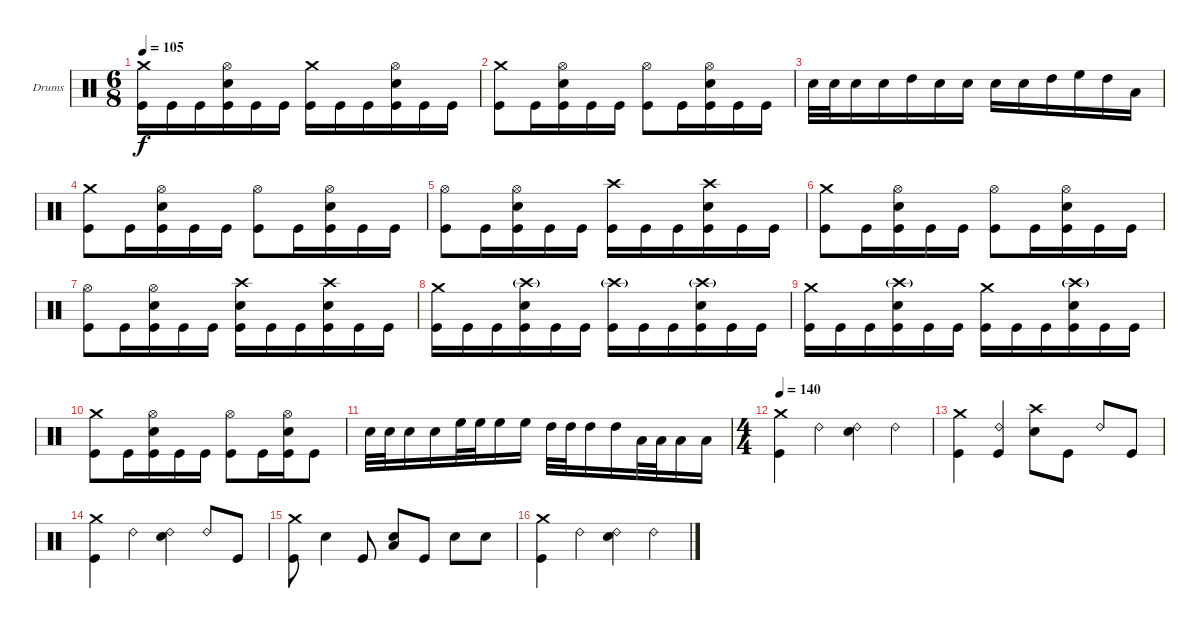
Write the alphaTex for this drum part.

\defaultSystemsLayout 4
\bracketExtendMode groupsimilarinstruments
\firstSystemTrackNameOrientation horizontal
\otherSystemsTrackNameOrientation horizontal
\track ("Stefan Schwarzmann" "Drums") {instrument percussion}
\staff {score}
\articulation defaults
\ts (6 8)
\tempo 105
\clef neutral
\ks c
("Crash medium (hit)" "Kick (hit)").16{dy f} "Kick (hit)".16 "Kick (hit)".16 ("Hi-Hat (open)" "Snare (hit) 2" "Kick (hit)").16 "Kick (hit)".16 "Kick (hit)".16 ("Crash medium (hit)" "Kick (hit)").16 "Kick (hit)".16 "Kick (hit)".16 ("Hi-Hat (open)" "Snare (hit) 2" "Kick (hit)").16 "Kick (hit)".16 "Kick (hit)".16 |
("Crash medium (hit)" "Kick (hit)").8 "Kick (hit)".16 ("Hi-Hat (open)" "Snare (hit) 2" "Kick (hit)").16 "Kick (hit)".16 "Kick (hit)".16 ("Hi-Hat (open)" "Kick (hit)").8 "Kick (hit)".16 ("Hi-Hat (open)" "Snare (hit) 2" "Kick (hit)").16 "Kick (hit)".16 "Kick (hit)".16 |
"Snare (hit) 2".32 "Snare (hit) 2".32 "Snare (hit) 2".16 "Snare (hit) 2".16 "High Tom (hit)".16 "Snare (hit) 2".16 "Snare (hit) 2".16 "Snare (hit) 2".16 "Snare (hit) 2".16 "High Tom (hit)".16 "High Floor Tom (hit)".16 "High Tom (hit)".16 "Low Tom (hit)".16 |
("Crash medium (hit)" "Kick (hit)").8 "Kick (hit)".16 ("Hi-Hat (open)" "Snare (hit) 2" "Kick (hit)").16 "Kick (hit)".16 "Kick (hit)".16 ("Hi-Hat (open)" "Kick (hit)").8 "Kick (hit)".16 ("Hi-Hat (open)" "Snare (hit) 2" "Kick (hit)").16 "Kick (hit)".16 "Kick (hit)".16 |
("Hi-Hat (open)" "Kick (hit)").8 "Kick (hit)".16 ("Hi-Hat (open)" "Snare (hit) 2" "Kick (hit)").16 "Kick (hit)".16 "Kick (hit)".16 ("Crash high (hit)" "Kick (hit)").16 "Kick (hit)".16 "Kick (hit)".16 ("Crash high (hit)" "Snare (hit) 2" "Kick (hit)").16 "Kick (hit)".16 "Kick (hit)".16 |
("Crash medium (hit)" "Kick (hit)").8 "Kick (hit)".16 ("Hi-Hat (open)" "Snare (hit) 2" "Kick (hit)").16 "Kick (hit)".16 "Kick (hit)".16 ("Hi-Hat (open)" "Kick (hit)").8 "Kick (hit)".16 ("Hi-Hat (open)" "Snare (hit) 2" "Kick (hit)").16 "Kick (hit)".16 "Kick (hit)".16 |
("Hi-Hat (open)" "Kick (hit)").8 "Kick (hit)".16 ("Hi-Hat (open)" "Snare (hit) 2" "Kick (hit)").16 "Kick (hit)".16 "Kick (hit)".16 ("Crash high (hit)" "Snare (hit) 2" "Kick (hit)").16 "Kick (hit)".16 "Kick (hit)".16 ("Crash high (hit)" "Snare (hit) 2" "Kick (hit)").16 "Kick (hit)".16 "Kick (hit)".16 |
("Crash medium (hit)" "Kick (hit)").16 "Kick (hit)".16 "Kick (hit)".16 ("Crash high (hit)"{g} "Snare (hit) 2" "Kick (hit)").16 "Kick (hit)".16 "Kick (hit)".16 ("Crash high (hit)"{g} "Kick (hit)").16 "Kick (hit)".16 "Kick (hit)".16 ("Crash high (hit)"{g} "Snare (hit) 2" "Kick (hit)").16 "Kick (hit)".16 "Kick (hit)".16 |
("Crash medium (hit)" "Kick (hit)").16 "Kick (hit)".16 "Kick (hit)".16 ("Crash high (hit)"{g} "Snare (hit) 2" "Kick (hit)").16 "Kick (hit)".16 "Kick (hit)".16 ("Crash medium (hit)" "Kick (hit)").16 "Kick (hit)".16 "Kick (hit)".16 ("Crash high (hit)"{g} "Snare (hit) 2" "Kick (hit)").16 "Kick (hit)".16 "Kick (hit)".16 |
("Crash medium (hit)" "Kick (hit)").8 "Kick (hit)".16 ("Hi-Hat (open)" "Snare (hit) 2" "Kick (hit)").16 "Kick (hit)".16 "Kick (hit)".16 ("Hi-Hat (open)" "Kick (hit)").8 "Kick (hit)".16 ("Hi-Hat (open)" "Snare (hit) 2" "Kick (hit)").16 "Kick (hit)".8 |
"Snare (hit) 2".32 "Snare (hit) 2".32 "Snare (hit) 2".16 "Snare (hit) 2".16 "High Floor Tom (hit)".32 "High Floor Tom (hit)".32 "High Floor Tom (hit)".16 "High Floor Tom (hit)".16 "High Tom (hit)".32 "High Tom (hit)".32 "High Tom (hit)".16 "High Tom (hit)".16 "Low Tom (hit)".32 "Low Tom (hit)".32 "Low Tom (hit)".16 "Low Tom (hit)".16 |
\ts (4 4)
\tempo 140
("Crash medium (hit)" "Kick (hit)").4 "Ride (bell) 2".4 ("Ride (bell) 2" "Snare (hit) 2").4 "Ride (bell) 2".4 |
("Crash medium (hit)" "Kick (hit)").4 ("Ride (bell) 2" "Kick (hit)").4 ("Crash high (hit)" "Snare (hit) 2").8 "Kick (hit)".8 "Ride (bell) 2".8 "Kick (hit)".8 |
("Crash medium (hit)" "Kick (hit)").4 "Ride (bell) 2".4 ("Ride (bell) 2" "Snare (hit) 2").4 "Ride (bell) 2".8 "Kick (hit)".8 |
("Crash medium (hit)" "Kick (hit)").8 "Snare (hit) 2".4 "Kick (hit)".8 ("Low Tom (hit)" "Snare (hit) 2").8 "Kick (hit)".8 "Snare (hit) 2".8 "Snare (hit) 2".8 |
("Crash medium (hit)" "Kick (hit)").4 "Ride (bell) 2".4 ("Ride (bell) 2" "Snare (hit) 2").4 "Ride (bell) 2".4
